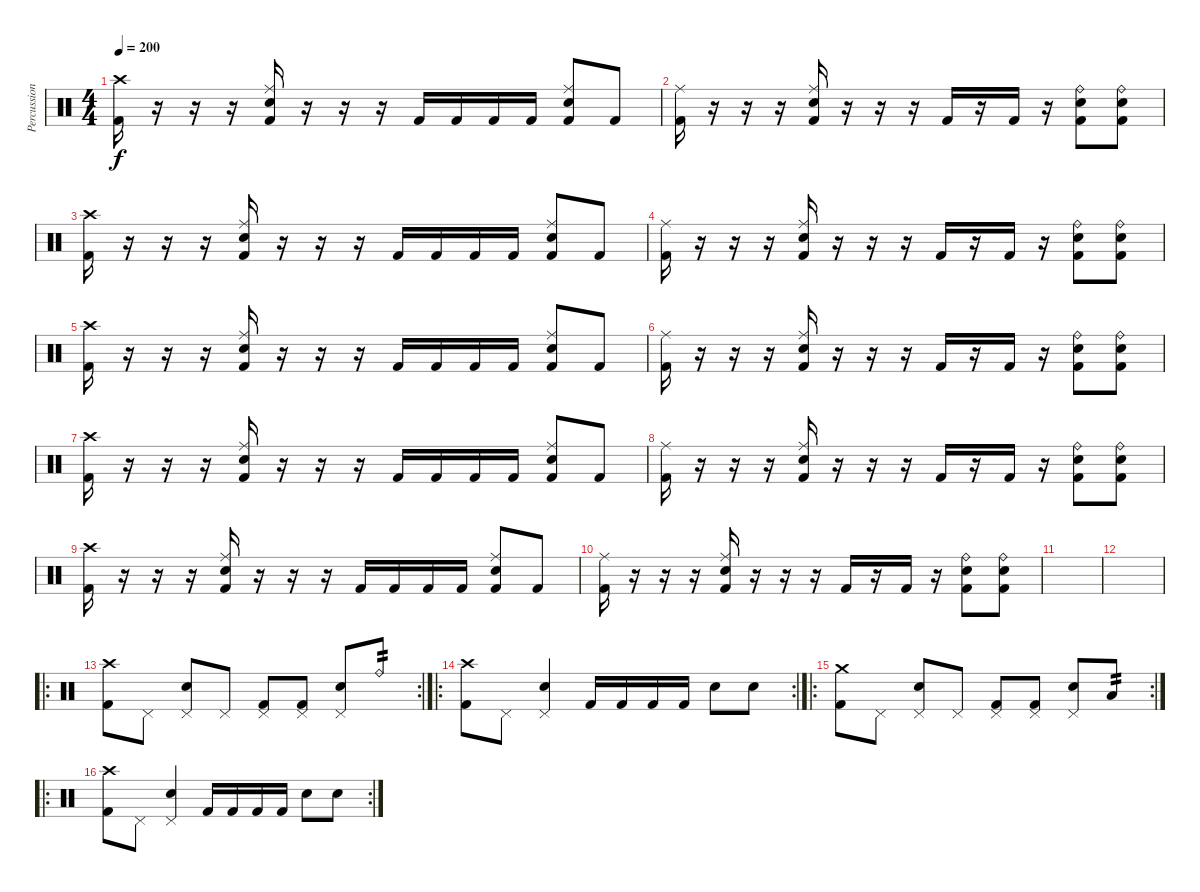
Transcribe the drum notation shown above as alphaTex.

\track ("Percussions" "Percussion") {instrument percussion}
\staff {score}
\articulation defaults
\ts (4 4)
\tempo 200
\clef neutral
\ks c
("Crash high (hit)" "Kick (hit) 2").16{dy f} r.16 r.16 r.16 ("Ride (middle)" "Snare (hit) 2" "Kick (hit) 2").16 r.16 r.16 r.16 "Kick (hit) 2".16 "Kick (hit) 2".16 "Kick (hit) 2".16 "Kick (hit) 2".16 ("Ride (middle)" "Snare (hit) 2" "Kick (hit) 2").8 "Kick (hit) 2".8 |
("Ride (middle)" "Kick (hit) 2").16 r.16 r.16 r.16 ("Ride (middle)" "Snare (hit) 2" "Kick (hit) 2").16 r.16 r.16 r.16 "Kick (hit) 2".16 r.16 "Kick (hit) 2".16 r.16 ("Ride (bell)" "Snare (hit) 2" "Kick (hit) 2").8 ("Ride (bell)" "Snare (hit) 2" "Kick (hit) 2").8 |
("Crash high (hit)" "Kick (hit) 2").16 r.16 r.16 r.16 ("Ride (middle)" "Snare (hit) 2" "Kick (hit) 2").16 r.16 r.16 r.16 "Kick (hit) 2".16 "Kick (hit) 2".16 "Kick (hit) 2".16 "Kick (hit) 2".16 ("Ride (middle)" "Snare (hit) 2" "Kick (hit) 2").8 "Kick (hit) 2".8 |
("Ride (middle)" "Kick (hit) 2").16 r.16 r.16 r.16 ("Ride (middle)" "Snare (hit) 2" "Kick (hit) 2").16 r.16 r.16 r.16 "Kick (hit) 2".16 r.16 "Kick (hit) 2".16 r.16 ("Ride (bell)" "Snare (hit) 2" "Kick (hit) 2").8 ("Ride (bell)" "Snare (hit) 2" "Kick (hit) 2").8 |
("Crash high (hit)" "Kick (hit) 2").16 r.16 r.16 r.16 ("Ride (middle)" "Snare (hit) 2" "Kick (hit) 2").16 r.16 r.16 r.16 "Kick (hit) 2".16 "Kick (hit) 2".16 "Kick (hit) 2".16 "Kick (hit) 2".16 ("Ride (middle)" "Snare (hit) 2" "Kick (hit) 2").8 "Kick (hit) 2".8 |
("Ride (middle)" "Kick (hit) 2").16 r.16 r.16 r.16 ("Ride (middle)" "Snare (hit) 2" "Kick (hit) 2").16 r.16 r.16 r.16 "Kick (hit) 2".16 r.16 "Kick (hit) 2".16 r.16 ("Ride (bell)" "Snare (hit) 2" "Kick (hit) 2").8 ("Ride (bell)" "Snare (hit) 2" "Kick (hit) 2").8 |
("Crash high (hit)" "Kick (hit) 2").16 r.16 r.16 r.16 ("Ride (middle)" "Snare (hit) 2" "Kick (hit) 2").16 r.16 r.16 r.16 "Kick (hit) 2".16 "Kick (hit) 2".16 "Kick (hit) 2".16 "Kick (hit) 2".16 ("Ride (middle)" "Snare (hit) 2" "Kick (hit) 2").8 "Kick (hit) 2".8 |
("Ride (middle)" "Kick (hit) 2").16 r.16 r.16 r.16 ("Ride (middle)" "Snare (hit) 2" "Kick (hit) 2").16 r.16 r.16 r.16 "Kick (hit) 2".16 r.16 "Kick (hit) 2".16 r.16 ("Ride (bell)" "Snare (hit) 2" "Kick (hit) 2").8 ("Ride (bell)" "Snare (hit) 2" "Kick (hit) 2").8 |
("Crash high (hit)" "Kick (hit) 2").16 r.16 r.16 r.16 ("Ride (middle)" "Snare (hit) 2" "Kick (hit) 2").16 r.16 r.16 r.16 "Kick (hit) 2".16 "Kick (hit) 2".16 "Kick (hit) 2".16 "Kick (hit) 2".16 ("Ride (middle)" "Snare (hit) 2" "Kick (hit) 2").8 "Kick (hit) 2".8 |
("Ride (middle)" "Kick (hit) 2").16 r.16 r.16 r.16 ("Ride (middle)" "Snare (hit) 2" "Kick (hit) 2").16 r.16 r.16 r.16 "Kick (hit) 2".16 r.16 "Kick (hit) 2".16 r.16 ("Ride (bell)" "Snare (hit) 2" "Kick (hit) 2").8 ("Ride (bell)" "Snare (hit) 2" "Kick (hit) 2").8 |
|
|
\ro
\rc 2
("Crash high (hit)" "Kick (hit) 2").8 "Pedal Hi-Hat (hit)".8 ("Pedal Hi-Hat (hit)" "Snare (hit) 2").8 "Pedal Hi-Hat (hit)".8 ("Pedal Hi-Hat (hit)" "Kick (hit) 2").8 ("Pedal Hi-Hat (hit)" "Kick (hit) 2").8 ("Pedal Hi-Hat (hit)" "Snare (hit) 2").8 "Ride (bell)".8{tp 2} |
\ro
\rc 2
("Crash high (hit)" "Kick (hit) 2").8 "Pedal Hi-Hat (hit)".8 ("Pedal Hi-Hat (hit)" "Snare (hit) 2").4 "Kick (hit) 2".16 "Kick (hit) 2".16 "Kick (hit) 2".16 "Kick (hit) 2".16 "Snare (hit) 2".8 "Snare (hit) 2".8 |
\ro
\rc 2
("Crash medium (hit)" "Kick (hit) 2").8 "Pedal Hi-Hat (hit)".8 ("Pedal Hi-Hat (hit)" "Snare (hit) 2").8 "Pedal Hi-Hat (hit)".8 ("Pedal Hi-Hat (hit)" "Kick (hit) 2").8 ("Pedal Hi-Hat (hit)" "Kick (hit) 2").8 ("Pedal Hi-Hat (hit)" "Snare (hit) 2").8 "Low Tom (hit)".8{tp 2} |
\ro
\rc 2
("Crash high (hit)" "Kick (hit) 2").8 "Pedal Hi-Hat (hit)".8 ("Pedal Hi-Hat (hit)" "Snare (hit) 2").4 "Kick (hit) 2".16 "Kick (hit) 2".16 "Kick (hit) 2".16 "Kick (hit) 2".16 "Snare (hit) 2".8 "Snare (hit) 2".8
